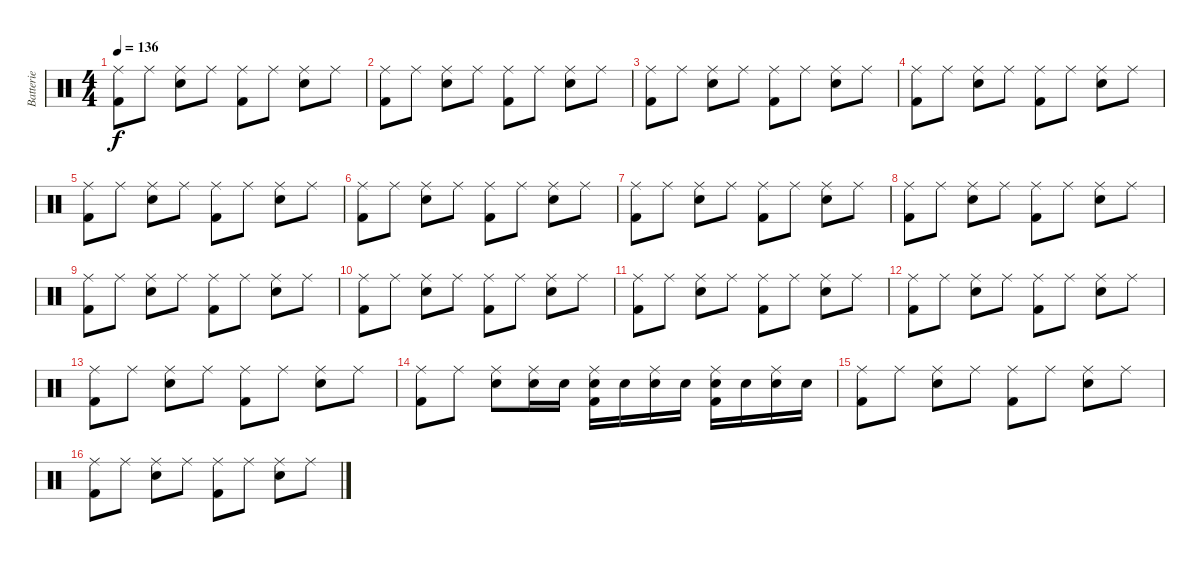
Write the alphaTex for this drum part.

\track ("Batterie" "Batterie") {instrument percussion}
\staff {score}
\articulation defaults
\ts (4 4)
\tempo 136
\clef neutral
\ks c
("Ride (middle)" "Kick (hit) 2").8{dy f} "Ride (middle)".8 ("Ride (middle)" "Snare (hit) 2").8 "Ride (middle)".8 ("Ride (middle)" "Kick (hit) 2").8 "Ride (middle)".8 ("Ride (middle)" "Snare (hit) 2").8 "Ride (middle)".8 |
("Ride (middle)" "Kick (hit) 2").8 "Ride (middle)".8 ("Ride (middle)" "Snare (hit) 2").8 "Ride (middle)".8 ("Ride (middle)" "Kick (hit) 2").8 "Ride (middle)".8 ("Ride (middle)" "Snare (hit) 2").8 "Ride (middle)".8 |
("Ride (middle)" "Kick (hit) 2").8 "Ride (middle)".8 ("Ride (middle)" "Snare (hit) 2").8 "Ride (middle)".8 ("Ride (middle)" "Kick (hit) 2").8 "Ride (middle)".8 ("Ride (middle)" "Snare (hit) 2").8 "Ride (middle)".8 |
("Ride (middle)" "Kick (hit) 2").8 "Ride (middle)".8 ("Ride (middle)" "Snare (hit) 2").8 "Ride (middle)".8 ("Ride (middle)" "Kick (hit) 2").8 "Ride (middle)".8 ("Ride (middle)" "Snare (hit) 2").8 "Ride (middle)".8 |
("Ride (middle)" "Kick (hit) 2").8 "Ride (middle)".8 ("Ride (middle)" "Snare (hit) 2").8 "Ride (middle)".8 ("Ride (middle)" "Kick (hit) 2").8 "Ride (middle)".8 ("Ride (middle)" "Snare (hit) 2").8 "Ride (middle)".8 |
("Ride (middle)" "Kick (hit) 2").8 "Ride (middle)".8 ("Ride (middle)" "Snare (hit) 2").8 "Ride (middle)".8 ("Ride (middle)" "Kick (hit) 2").8 "Ride (middle)".8 ("Ride (middle)" "Snare (hit) 2").8 "Ride (middle)".8 |
("Ride (middle)" "Kick (hit) 2").8 "Ride (middle)".8 ("Ride (middle)" "Snare (hit) 2").8 "Ride (middle)".8 ("Ride (middle)" "Kick (hit) 2").8 "Ride (middle)".8 ("Ride (middle)" "Snare (hit) 2").8 "Ride (middle)".8 |
("Ride (middle)" "Kick (hit) 2").8 "Ride (middle)".8 ("Ride (middle)" "Snare (hit) 2").8 "Ride (middle)".8 ("Ride (middle)" "Kick (hit) 2").8 "Ride (middle)".8 ("Ride (middle)" "Snare (hit) 2").8 "Ride (middle)".8 |
("Ride (middle)" "Kick (hit) 2").8 "Ride (middle)".8 ("Ride (middle)" "Snare (hit) 2").8 "Ride (middle)".8 ("Ride (middle)" "Kick (hit) 2").8 "Ride (middle)".8 ("Ride (middle)" "Snare (hit) 2").8 "Ride (middle)".8 |
("Ride (middle)" "Kick (hit) 2").8 "Ride (middle)".8 ("Ride (middle)" "Snare (hit) 2").8 "Ride (middle)".8 ("Ride (middle)" "Kick (hit) 2").8 "Ride (middle)".8 ("Ride (middle)" "Snare (hit) 2").8 "Ride (middle)".8 |
("Ride (middle)" "Kick (hit) 2").8 "Ride (middle)".8 ("Ride (middle)" "Snare (hit) 2").8 "Ride (middle)".8 ("Ride (middle)" "Kick (hit) 2").8 "Ride (middle)".8 ("Ride (middle)" "Snare (hit) 2").8 "Ride (middle)".8 |
("Ride (middle)" "Kick (hit) 2").8 "Ride (middle)".8 ("Ride (middle)" "Snare (hit) 2").8 "Ride (middle)".8 ("Ride (middle)" "Kick (hit) 2").8 "Ride (middle)".8 ("Ride (middle)" "Snare (hit) 2").8 "Ride (middle)".8 |
("Ride (middle)" "Kick (hit) 2").8 "Ride (middle)".8 ("Ride (middle)" "Snare (hit) 2").8 "Ride (middle)".8 ("Ride (middle)" "Kick (hit) 2").8 "Ride (middle)".8 ("Ride (middle)" "Snare (hit) 2").8 "Ride (middle)".8 |
("Ride (middle)" "Kick (hit) 2").8 "Ride (middle)".8 ("Ride (middle)" "Snare (hit) 2").8 ("Ride (middle)" "Snare (hit) 2").16 "Snare (hit) 2".16 ("Ride (middle)" "Snare (hit) 2" "Kick (hit) 2").16 "Snare (hit) 2".16 ("Ride (middle)" "Snare (hit) 2").16 "Snare (hit) 2".16 ("Ride (middle)" "Snare (hit) 2" "Kick (hit) 2").16 "Snare (hit) 2".16 ("Ride (middle)" "Snare (hit) 2").16 "Snare (hit) 2".16 |
("Ride (middle)" "Kick (hit) 2").8 "Ride (middle)".8 ("Ride (middle)" "Snare (hit) 2").8 "Ride (middle)".8 ("Ride (middle)" "Kick (hit) 2").8 "Ride (middle)".8 ("Ride (middle)" "Snare (hit) 2").8 "Ride (middle)".8 |
("Ride (middle)" "Kick (hit) 2").8 "Ride (middle)".8 ("Ride (middle)" "Snare (hit) 2").8 "Ride (middle)".8 ("Ride (middle)" "Kick (hit) 2").8 "Ride (middle)".8 ("Ride (middle)" "Snare (hit) 2").8 "Ride (middle)".8
